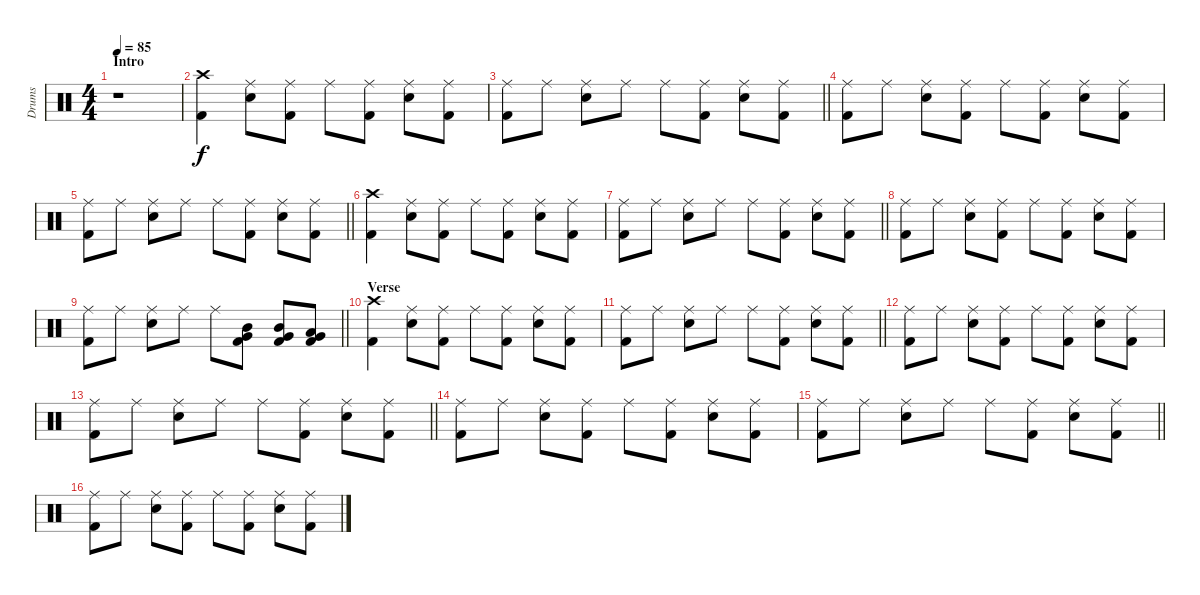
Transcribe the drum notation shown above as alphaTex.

\track ("Drums" "Drums") {instrument percussion}
\staff {score}
\articulation defaults
\ts (4 4)
\section ("" "Intro")
\tempo 85
\clef neutral
\ks c
r.1{dy f} |
("Crash high (hit)" "Kick (hit) 2").4 ("Ride (middle)" "Snare (hit) 2").8 ("Ride (middle)" "Kick (hit) 2").8 "Ride (middle)".8 ("Ride (middle)" "Kick (hit) 2").8 ("Ride (middle)" "Snare (hit) 2").8 ("Ride (middle)" "Kick (hit) 2").8 |
\barLineRight lightlight
("Ride (middle)" "Kick (hit) 2").8 "Ride (middle)".8 ("Ride (middle)" "Snare (hit) 2").8 "Ride (middle)".8 "Ride (middle)".8 ("Ride (middle)" "Kick (hit) 2").8 ("Ride (middle)" "Snare (hit) 2").8 ("Ride (middle)" "Kick (hit) 2").8 |
("Ride (middle)" "Kick (hit) 2").8 "Ride (middle)".8 ("Ride (middle)" "Snare (hit) 2").8 ("Ride (middle)" "Kick (hit) 2").8 "Ride (middle)".8 ("Ride (middle)" "Kick (hit) 2").8 ("Ride (middle)" "Snare (hit) 2").8 ("Ride (middle)" "Kick (hit) 2").8 |
\barLineRight lightlight
("Ride (middle)" "Kick (hit) 2").8 "Ride (middle)".8 ("Ride (middle)" "Snare (hit) 2").8 "Ride (middle)".8 "Ride (middle)".8 ("Ride (middle)" "Kick (hit) 2").8 ("Ride (middle)" "Snare (hit) 2").8 ("Ride (middle)" "Kick (hit) 2").8 |
("Crash high (hit)" "Kick (hit) 2").4 ("Ride (middle)" "Snare (hit) 2").8 ("Ride (middle)" "Kick (hit) 2").8 "Ride (middle)".8 ("Ride (middle)" "Kick (hit) 2").8 ("Ride (middle)" "Snare (hit) 2").8 ("Ride (middle)" "Kick (hit) 2").8 |
\barLineRight lightlight
("Ride (middle)" "Kick (hit) 2").8 "Ride (middle)".8 ("Ride (middle)" "Snare (hit) 2").8 "Ride (middle)".8 "Ride (middle)".8 ("Ride (middle)" "Kick (hit) 2").8 ("Ride (middle)" "Snare (hit) 2").8 ("Ride (middle)" "Kick (hit) 2").8 |
("Ride (middle)" "Kick (hit) 2").8 "Ride (middle)".8 ("Ride (middle)" "Snare (hit) 2").8 ("Ride (middle)" "Kick (hit) 2").8 "Ride (middle)".8 ("Ride (middle)" "Kick (hit) 2").8 ("Ride (middle)" "Snare (hit) 2").8 ("Ride (middle)" "Kick (hit) 2").8 |
\barLineRight lightlight
("Ride (middle)" "Kick (hit) 2").8 "Ride (middle)".8 ("Ride (middle)" "Snare (hit) 2").8 "Ride (middle)".8 "Ride (middle)".8 ("Mid Tom (hit)" "Very Low Tom (hit)" "Kick (hit) 2").8 ("Mid Tom (hit)" "Very Low Tom (hit)" "Kick (hit) 2").8 ("Very Low Tom (hit)" "Low Floor Tom (hit)" "Kick (hit) 2").8 |
\section ("" "Verse")
("Crash high (hit)" "Kick (hit) 2").4 ("Ride (middle)" "Snare (hit) 2").8 ("Ride (middle)" "Kick (hit) 2").8 "Ride (middle)".8 ("Ride (middle)" "Kick (hit) 2").8 ("Ride (middle)" "Snare (hit) 2").8 ("Ride (middle)" "Kick (hit) 2").8 |
\barLineRight lightlight
("Ride (middle)" "Kick (hit) 2").8 "Ride (middle)".8 ("Ride (middle)" "Snare (hit) 2").8 "Ride (middle)".8 "Ride (middle)".8 ("Ride (middle)" "Kick (hit) 2").8 ("Ride (middle)" "Snare (hit) 2").8 ("Ride (middle)" "Kick (hit) 2").8 |
("Ride (middle)" "Kick (hit) 2").8 "Ride (middle)".8 ("Ride (middle)" "Snare (hit) 2").8 ("Ride (middle)" "Kick (hit) 2").8 "Ride (middle)".8 ("Ride (middle)" "Kick (hit) 2").8 ("Ride (middle)" "Snare (hit) 2").8 ("Ride (middle)" "Kick (hit) 2").8 |
\barLineRight lightlight
("Ride (middle)" "Kick (hit) 2").8 "Ride (middle)".8 ("Ride (middle)" "Snare (hit) 2").8 "Ride (middle)".8 "Ride (middle)".8 ("Ride (middle)" "Kick (hit) 2").8 ("Ride (middle)" "Snare (hit) 2").8 ("Ride (middle)" "Kick (hit) 2").8 |
("Ride (middle)" "Kick (hit) 2").8 "Ride (middle)".8 ("Ride (middle)" "Snare (hit) 2").8 ("Ride (middle)" "Kick (hit) 2").8 "Ride (middle)".8 ("Ride (middle)" "Kick (hit) 2").8 ("Ride (middle)" "Snare (hit) 2").8 ("Ride (middle)" "Kick (hit) 2").8 |
\barLineRight lightlight
("Ride (middle)" "Kick (hit) 2").8 "Ride (middle)".8 ("Ride (middle)" "Snare (hit) 2").8 "Ride (middle)".8 "Ride (middle)".8 ("Ride (middle)" "Kick (hit) 2").8 ("Ride (middle)" "Snare (hit) 2").8 ("Ride (middle)" "Kick (hit) 2").8 |
("Ride (middle)" "Kick (hit) 2").8 "Ride (middle)".8 ("Ride (middle)" "Snare (hit) 2").8 ("Ride (middle)" "Kick (hit) 2").8 "Ride (middle)".8 ("Ride (middle)" "Kick (hit) 2").8 ("Ride (middle)" "Snare (hit) 2").8 ("Ride (middle)" "Kick (hit) 2").8
